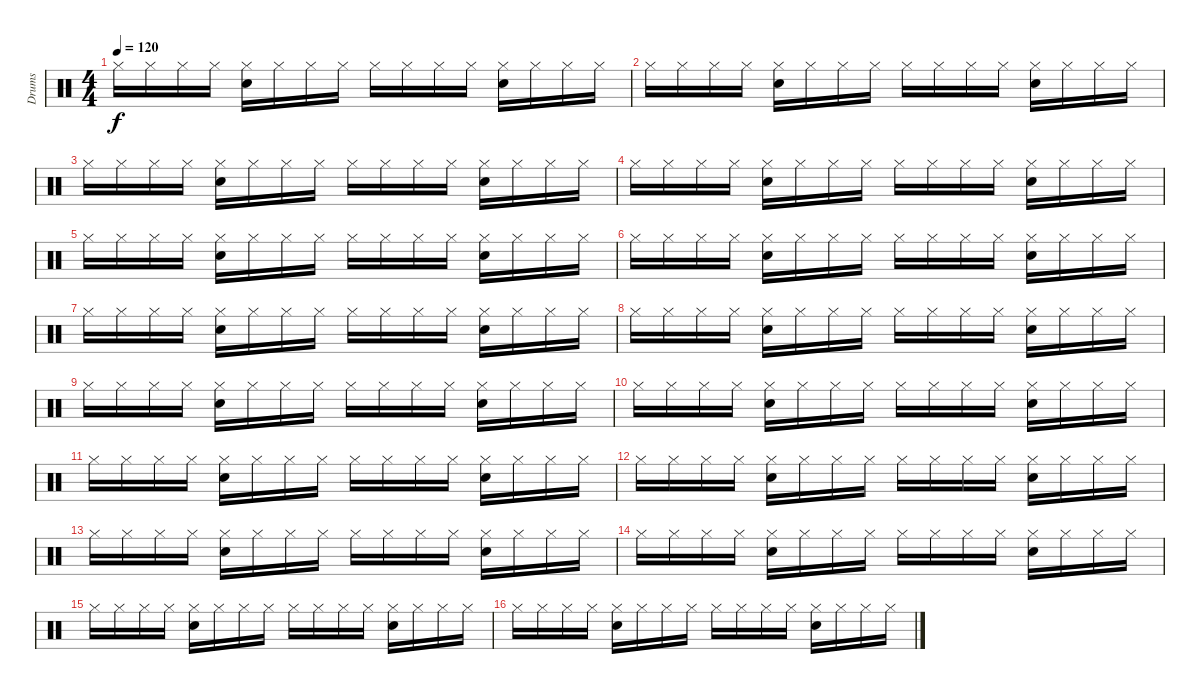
\track ("Drums" "Drums") {instrument percussion}
\staff {score}
\articulation defaults
\ts (4 4)
\tempo 120
\clef neutral
\ks c "Hi-Hat (closed)".16{dy f} "Hi-Hat (closed)".16 "Hi-Hat (closed)".16 "Hi-Hat (closed)".16
("Hi-Hat (closed)" "Electric Snare (hit)").16 "Hi-Hat (closed)".16 "Hi-Hat (closed)".16 "Hi-Hat (closed)".16 "Hi-Hat (closed)".16 "Hi-Hat (closed)".16 "Hi-Hat (closed)".16 "Hi-Hat (closed)".16 ("Hi-Hat (closed)" "Electric Snare (hit)").16 "Hi-Hat (closed)".16 "Hi-Hat (closed)".16 "Hi-Hat (closed)".16 |
"Hi-Hat (closed)".16 "Hi-Hat (closed)".16 "Hi-Hat (closed)".16 "Hi-Hat (closed)".16 ("Hi-Hat (closed)" "Electric Snare (hit)").16 "Hi-Hat (closed)".16 "Hi-Hat (closed)".16 "Hi-Hat (closed)".16 "Hi-Hat (closed)".16 "Hi-Hat (closed)".16 "Hi-Hat (closed)".16 "Hi-Hat (closed)".16 ("Hi-Hat (closed)" "Electric Snare (hit)").16 "Hi-Hat (closed)".16 "Hi-Hat (closed)".16 "Hi-Hat (closed)".16 |
"Hi-Hat (closed)".16 "Hi-Hat (closed)".16 "Hi-Hat (closed)".16 "Hi-Hat (closed)".16 ("Hi-Hat (closed)" "Electric Snare (hit)").16 "Hi-Hat (closed)".16 "Hi-Hat (closed)".16 "Hi-Hat (closed)".16 "Hi-Hat (closed)".16 "Hi-Hat (closed)".16 "Hi-Hat (closed)".16 "Hi-Hat (closed)".16 ("Hi-Hat (closed)" "Electric Snare (hit)").16 "Hi-Hat (closed)".16 "Hi-Hat (closed)".16 "Hi-Hat (closed)".16 |
"Hi-Hat (closed)".16 "Hi-Hat (closed)".16 "Hi-Hat (closed)".16 "Hi-Hat (closed)".16 ("Hi-Hat (closed)" "Electric Snare (hit)").16 "Hi-Hat (closed)".16 "Hi-Hat (closed)".16 "Hi-Hat (closed)".16 "Hi-Hat (closed)".16 "Hi-Hat (closed)".16 "Hi-Hat (closed)".16 "Hi-Hat (closed)".16 ("Hi-Hat (closed)" "Electric Snare (hit)").16 "Hi-Hat (closed)".16 "Hi-Hat (closed)".16 "Hi-Hat (closed)".16 |
"Hi-Hat (closed)".16 "Hi-Hat (closed)".16 "Hi-Hat (closed)".16 "Hi-Hat (closed)".16 ("Hi-Hat (closed)" "Electric Snare (hit)").16 "Hi-Hat (closed)".16 "Hi-Hat (closed)".16 "Hi-Hat (closed)".16 "Hi-Hat (closed)".16 "Hi-Hat (closed)".16 "Hi-Hat (closed)".16 "Hi-Hat (closed)".16 ("Hi-Hat (closed)" "Electric Snare (hit)").16 "Hi-Hat (closed)".16 "Hi-Hat (closed)".16 "Hi-Hat (closed)".16 |
"Hi-Hat (closed)".16 "Hi-Hat (closed)".16 "Hi-Hat (closed)".16 "Hi-Hat (closed)".16 ("Hi-Hat (closed)" "Electric Snare (hit)").16 "Hi-Hat (closed)".16 "Hi-Hat (closed)".16 "Hi-Hat (closed)".16 "Hi-Hat (closed)".16 "Hi-Hat (closed)".16 "Hi-Hat (closed)".16 "Hi-Hat (closed)".16 ("Hi-Hat (closed)" "Electric Snare (hit)").16 "Hi-Hat (closed)".16 "Hi-Hat (closed)".16 "Hi-Hat (closed)".16 |
"Hi-Hat (closed)".16 "Hi-Hat (closed)".16 "Hi-Hat (closed)".16 "Hi-Hat (closed)".16 ("Hi-Hat (closed)" "Electric Snare (hit)").16 "Hi-Hat (closed)".16 "Hi-Hat (closed)".16 "Hi-Hat (closed)".16 "Hi-Hat (closed)".16 "Hi-Hat (closed)".16 "Hi-Hat (closed)".16 "Hi-Hat (closed)".16 ("Hi-Hat (closed)" "Electric Snare (hit)").16 "Hi-Hat (closed)".16 "Hi-Hat (closed)".16 "Hi-Hat (closed)".16 |
"Hi-Hat (closed)".16 "Hi-Hat (closed)".16 "Hi-Hat (closed)".16 "Hi-Hat (closed)".16 ("Hi-Hat (closed)" "Electric Snare (hit)").16 "Hi-Hat (closed)".16 "Hi-Hat (closed)".16 "Hi-Hat (closed)".16 "Hi-Hat (closed)".16 "Hi-Hat (closed)".16 "Hi-Hat (closed)".16 "Hi-Hat (closed)".16 ("Hi-Hat (closed)" "Electric Snare (hit)").16 "Hi-Hat (closed)".16 "Hi-Hat (closed)".16 "Hi-Hat (closed)".16 |
"Hi-Hat (closed)".16 "Hi-Hat (closed)".16 "Hi-Hat (closed)".16 "Hi-Hat (closed)".16 ("Hi-Hat (closed)" "Electric Snare (hit)").16 "Hi-Hat (closed)".16 "Hi-Hat (closed)".16 "Hi-Hat (closed)".16 "Hi-Hat (closed)".16 "Hi-Hat (closed)".16 "Hi-Hat (closed)".16 "Hi-Hat (closed)".16 ("Hi-Hat (closed)" "Electric Snare (hit)").16 "Hi-Hat (closed)".16 "Hi-Hat (closed)".16 "Hi-Hat (closed)".16 |
"Hi-Hat (closed)".16 "Hi-Hat (closed)".16 "Hi-Hat (closed)".16 "Hi-Hat (closed)".16 ("Hi-Hat (closed)" "Electric Snare (hit)").16 "Hi-Hat (closed)".16 "Hi-Hat (closed)".16 "Hi-Hat (closed)".16 "Hi-Hat (closed)".16 "Hi-Hat (closed)".16 "Hi-Hat (closed)".16 "Hi-Hat (closed)".16 ("Hi-Hat (closed)" "Electric Snare (hit)").16 "Hi-Hat (closed)".16 "Hi-Hat (closed)".16 "Hi-Hat (closed)".16 |
"Hi-Hat (closed)".16 "Hi-Hat (closed)".16 "Hi-Hat (closed)".16 "Hi-Hat (closed)".16 ("Hi-Hat (closed)" "Electric Snare (hit)").16 "Hi-Hat (closed)".16 "Hi-Hat (closed)".16 "Hi-Hat (closed)".16 "Hi-Hat (closed)".16 "Hi-Hat (closed)".16 "Hi-Hat (closed)".16 "Hi-Hat (closed)".16 ("Hi-Hat (closed)" "Electric Snare (hit)").16 "Hi-Hat (closed)".16 "Hi-Hat (closed)".16 "Hi-Hat (closed)".16 |
"Hi-Hat (closed)".16 "Hi-Hat (closed)".16 "Hi-Hat (closed)".16 "Hi-Hat (closed)".16 ("Hi-Hat (closed)" "Electric Snare (hit)").16 "Hi-Hat (closed)".16 "Hi-Hat (closed)".16 "Hi-Hat (closed)".16 "Hi-Hat (closed)".16 "Hi-Hat (closed)".16 "Hi-Hat (closed)".16 "Hi-Hat (closed)".16 ("Hi-Hat (closed)" "Electric Snare (hit)").16 "Hi-Hat (closed)".16 "Hi-Hat (closed)".16 "Hi-Hat (closed)".16 |
"Hi-Hat (closed)".16 "Hi-Hat (closed)".16 "Hi-Hat (closed)".16 "Hi-Hat (closed)".16 ("Hi-Hat (closed)" "Electric Snare (hit)").16 "Hi-Hat (closed)".16 "Hi-Hat (closed)".16 "Hi-Hat (closed)".16 "Hi-Hat (closed)".16 "Hi-Hat (closed)".16 "Hi-Hat (closed)".16 "Hi-Hat (closed)".16 ("Hi-Hat (closed)" "Electric Snare (hit)").16 "Hi-Hat (closed)".16 "Hi-Hat (closed)".16 "Hi-Hat (closed)".16 |
"Hi-Hat (closed)".16 "Hi-Hat (closed)".16 "Hi-Hat (closed)".16 "Hi-Hat (closed)".16 ("Hi-Hat (closed)" "Electric Snare (hit)").16 "Hi-Hat (closed)".16 "Hi-Hat (closed)".16 "Hi-Hat (closed)".16 "Hi-Hat (closed)".16 "Hi-Hat (closed)".16 "Hi-Hat (closed)".16 "Hi-Hat (closed)".16 ("Hi-Hat (closed)" "Electric Snare (hit)").16 "Hi-Hat (closed)".16 "Hi-Hat (closed)".16 "Hi-Hat (closed)".16 |
"Hi-Hat (closed)".16 "Hi-Hat (closed)".16 "Hi-Hat (closed)".16 "Hi-Hat (closed)".16 ("Hi-Hat (closed)" "Electric Snare (hit)").16 "Hi-Hat (closed)".16 "Hi-Hat (closed)".16 "Hi-Hat (closed)".16 "Hi-Hat (closed)".16 "Hi-Hat (closed)".16 "Hi-Hat (closed)".16 "Hi-Hat (closed)".16 ("Hi-Hat (closed)" "Electric Snare (hit)").16 "Hi-Hat (closed)".16 "Hi-Hat (closed)".16 "Hi-Hat (closed)".16 |
"Hi-Hat (closed)".16 "Hi-Hat (closed)".16 "Hi-Hat (closed)".16 "Hi-Hat (closed)".16 ("Hi-Hat (closed)" "Electric Snare (hit)").16 "Hi-Hat (closed)".16 "Hi-Hat (closed)".16 "Hi-Hat (closed)".16 "Hi-Hat (closed)".16 "Hi-Hat (closed)".16 "Hi-Hat (closed)".16 "Hi-Hat (closed)".16 ("Hi-Hat (closed)" "Electric Snare (hit)").16 "Hi-Hat (closed)".16 "Hi-Hat (closed)".16 "Hi-Hat (closed)".16
